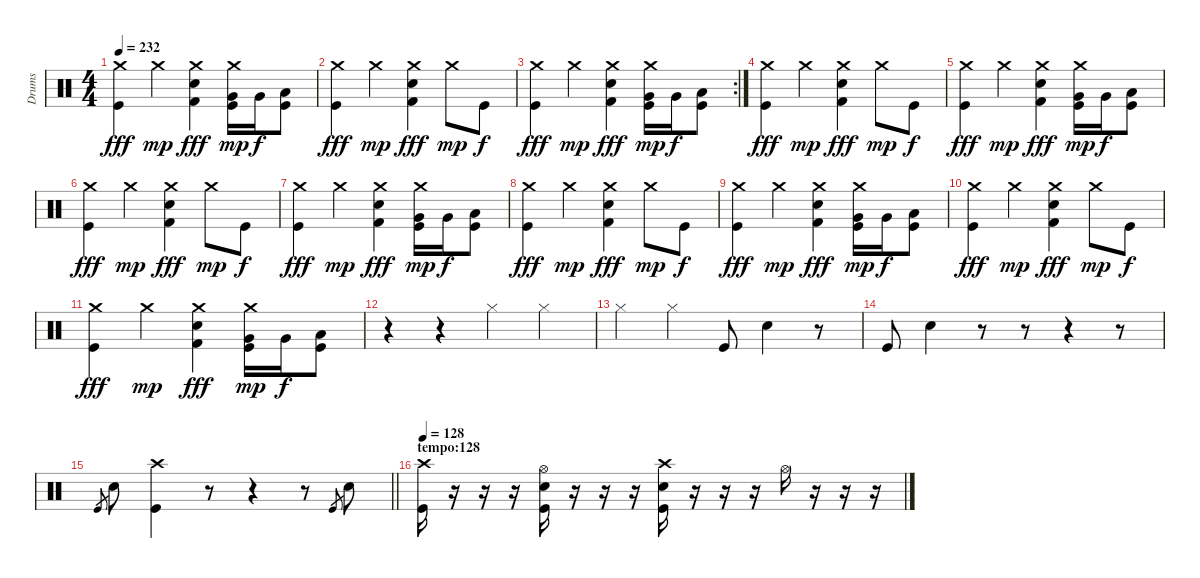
\track ("Drums" "Drums") {instrument percussion}
\staff {score}
\articulation defaults
\ts (4 4)
\tempo 232
\clef neutral
\ks c
("Crash medium (hit)" "Kick (hit)").4{dy fff} "Crash medium (hit)".4{dy mp} ("Crash medium (hit)" "Snare (hit) 2" "Kick (hit) 2").4{dy fff} ("Crash medium (hit)" "Very Low Tom (hit)" "Kick (hit)").16{dy mp} "Very Low Tom (hit)".16{dy f} ("Low Tom (hit)" "Kick (hit)").8 |
("Crash medium (hit)" "Kick (hit)").4{dy fff} "Crash medium (hit)".4{dy mp} ("Crash medium (hit)" "Snare (hit) 2" "Kick (hit) 2").4{dy fff} "Crash medium (hit)".8{dy mp} "Kick (hit)".8{dy f} |
\rc 2
("Crash medium (hit)" "Kick (hit)").4{dy fff} "Crash medium (hit)".4{dy mp} ("Crash medium (hit)" "Snare (hit) 2" "Kick (hit) 2").4{dy fff} ("Crash medium (hit)" "Very Low Tom (hit)" "Kick (hit)").16{dy mp} "Very Low Tom (hit)".16{dy f} ("Low Tom (hit)" "Kick (hit)").8 |
("Crash medium (hit)" "Kick (hit)").4{dy fff} "Crash medium (hit)".4{dy mp} ("Crash medium (hit)" "Snare (hit) 2" "Kick (hit) 2").4{dy fff} "Crash medium (hit)".8{dy mp} "Kick (hit)".8{dy f} |
("Crash medium (hit)" "Kick (hit)").4{dy fff} "Crash medium (hit)".4{dy mp} ("Crash medium (hit)" "Snare (hit) 2" "Kick (hit) 2").4{dy fff} ("Crash medium (hit)" "Very Low Tom (hit)" "Kick (hit)").16{dy mp} "Very Low Tom (hit)".16{dy f} ("Low Tom (hit)" "Kick (hit)").8 |
("Crash medium (hit)" "Kick (hit)").4{dy fff} "Crash medium (hit)".4{dy mp} ("Crash medium (hit)" "Snare (hit) 2" "Kick (hit) 2").4{dy fff} "Crash medium (hit)".8{dy mp} "Kick (hit)".8{dy f} |
("Crash medium (hit)" "Kick (hit)").4{dy fff} "Crash medium (hit)".4{dy mp} ("Crash medium (hit)" "Snare (hit) 2" "Kick (hit) 2").4{dy fff} ("Crash medium (hit)" "Very Low Tom (hit)" "Kick (hit)").16{dy mp} "Very Low Tom (hit)".16{dy f} ("Low Tom (hit)" "Kick (hit)").8 |
("Crash medium (hit)" "Kick (hit)").4{dy fff} "Crash medium (hit)".4{dy mp} ("Crash medium (hit)" "Snare (hit) 2" "Kick (hit) 2").4{dy fff} "Crash medium (hit)".8{dy mp} "Kick (hit)".8{dy f} |
("Crash medium (hit)" "Kick (hit)").4{dy fff} "Crash medium (hit)".4{dy mp} ("Crash medium (hit)" "Snare (hit) 2" "Kick (hit) 2").4{dy fff} ("Crash medium (hit)" "Very Low Tom (hit)" "Kick (hit)").16{dy mp} "Very Low Tom (hit)".16{dy f} ("Low Tom (hit)" "Kick (hit)").8 |
("Crash medium (hit)" "Kick (hit)").4{dy fff} "Crash medium (hit)".4{dy mp} ("Crash medium (hit)" "Snare (hit) 2" "Kick (hit) 2").4{dy fff} "Crash medium (hit)".8{dy mp} "Kick (hit)".8{dy f} |
("Crash medium (hit)" "Kick (hit)").4{dy fff} "Crash medium (hit)".4{dy mp} ("Crash medium (hit)" "Snare (hit) 2" "Kick (hit) 2").4{dy fff} ("Crash medium (hit)" "Very Low Tom (hit)" "Kick (hit)").16{dy mp} "Very Low Tom (hit)".16{dy f} ("Low Tom (hit)" "Kick (hit)").8 |
r.4 r.4 "Hi-Hat (closed)".4 "Hi-Hat (closed)".4 |
"Hi-Hat (closed)".4 "Hi-Hat (closed)".4 "Kick (hit)".8 "Electric Snare (hit)".4 r.8 |
"Kick (hit)".8 "Electric Snare (hit)".4 r.8 r.8 r.4 r.8 |
\barLineRight lightlight "Kick (hit)".8{gr} "Electric Snare (hit)".8
("Crash high (hit)" "Kick (hit)").4 r.8 r.4 r.8 "Kick (hit)".8{gr} "Electric Snare (hit)".8 |
\section ("" "tempo:128")
\tempo 128
("Crash high (hit)" "Kick (hit)").16 r.16 r.16 r.16 ("Hi-Hat (open)" "Electric Snare (hit)" "Kick (hit)").16 r.16 r.16 r.16 ("Crash high (hit)" "Electric Snare (hit)" "Kick (hit)").16 r.16 r.16 r.16 "Hi-Hat (open)".16 r.16 r.16 r.16
